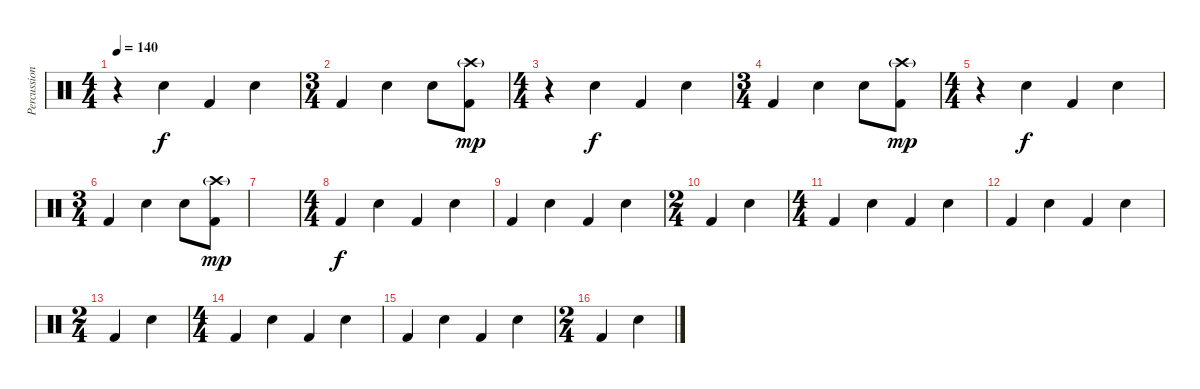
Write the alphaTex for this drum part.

\track ("Percussion" "Percussion") {instrument percussion}
\staff {score}
\articulation defaults
\ts (4 4)
\tempo 140
\clef neutral
\ks c
r.4{dy mp} "Snare (hit) 2".4{dy f} "Kick (hit) 2".4 "Snare (hit) 2".4 |
\ts (3 4)
"Kick (hit) 2".4 "Snare (hit) 2".4 "Snare (hit) 2".8 ("Crash high (hit)"{g} "Kick (hit) 2").8{dy mp} |
\ts (4 4)
r.4 "Snare (hit) 2".4{dy f} "Kick (hit) 2".4 "Snare (hit) 2".4 |
\ts (3 4)
"Kick (hit) 2".4 "Snare (hit) 2".4 "Snare (hit) 2".8 ("Crash high (hit)"{g} "Kick (hit) 2").8{dy mp} |
\ts (4 4)
r.4 "Snare (hit) 2".4{dy f} "Kick (hit) 2".4 "Snare (hit) 2".4 |
\ts (3 4)
"Kick (hit) 2".4 "Snare (hit) 2".4 "Snare (hit) 2".8 ("Crash high (hit)"{g} "Kick (hit) 2").8{dy mp} |
|
\ts (4 4)
"Kick (hit) 2".4{dy f} "Snare (hit) 2".4 "Kick (hit) 2".4 "Snare (hit) 2".4 |
"Kick (hit) 2".4 "Snare (hit) 2".4 "Kick (hit) 2".4 "Snare (hit) 2".4 |
\ts (2 4)
"Kick (hit) 2".4 "Snare (hit) 2".4 |
\ts (4 4)
"Kick (hit) 2".4 "Snare (hit) 2".4 "Kick (hit) 2".4 "Snare (hit) 2".4 |
"Kick (hit) 2".4 "Snare (hit) 2".4 "Kick (hit) 2".4 "Snare (hit) 2".4 |
\ts (2 4)
"Kick (hit) 2".4 "Snare (hit) 2".4 |
\ts (4 4)
"Kick (hit) 2".4 "Snare (hit) 2".4 "Kick (hit) 2".4 "Snare (hit) 2".4 |
"Kick (hit) 2".4 "Snare (hit) 2".4 "Kick (hit) 2".4 "Snare (hit) 2".4 |
\ts (2 4)
"Kick (hit) 2".4 "Snare (hit) 2".4
